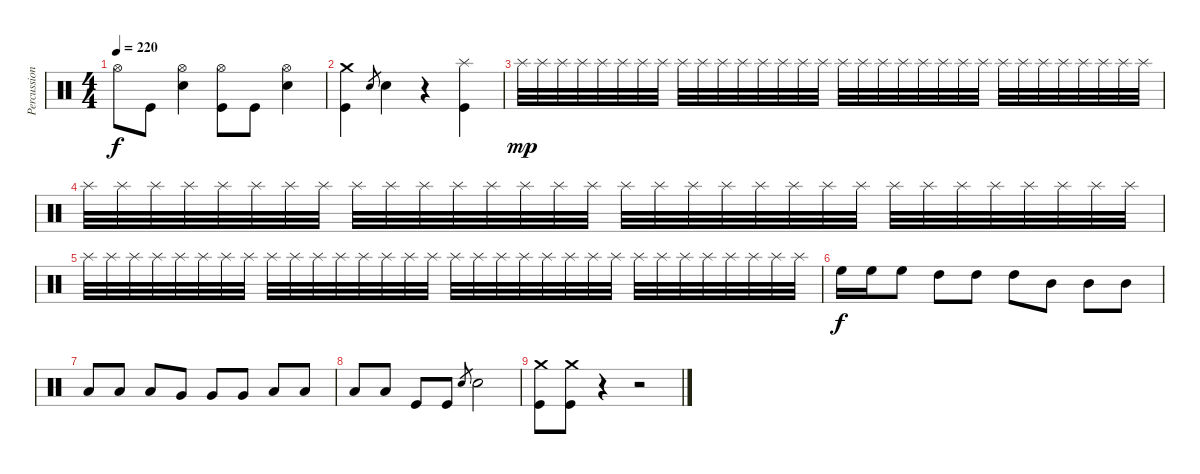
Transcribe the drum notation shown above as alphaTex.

\track ("Percussions" "Percussion") {instrument percussion}
\staff {score}
\articulation defaults
\ts (4 4)
\tempo 220
\clef neutral
\ks c "Hi-Hat (open)".8{dy f} "Kick (hit)".8
("Electric Snare (hit)" "Hi-Hat (open)").4 ("Kick (hit)" "Hi-Hat (open)").8 "Kick (hit)".8 ("Electric Snare (hit)" "Hi-Hat (open)").4 |
("Kick (hit)" "Crash medium (hit)").4 "Electric Snare (hit)".8{gr} "Electric Snare (hit)".4 r.4 ("Kick (hit)" "Splash (hit)").4 |
"Splash (hit)".32{dy mp} "Splash (hit)".32 "Splash (hit)".32 "Splash (hit)".32 "Splash (hit)".32 "Splash (hit)".32 "Splash (hit)".32 "Splash (hit)".32 "Splash (hit)".32 "Splash (hit)".32 "Splash (hit)".32 "Splash (hit)".32 "Splash (hit)".32 "Splash (hit)".32 "Splash (hit)".32 "Splash (hit)".32 "Splash (hit)".32 "Splash (hit)".32 "Splash (hit)".32 "Splash (hit)".32 "Splash (hit)".32 "Splash (hit)".32 "Splash (hit)".32 "Splash (hit)".32 "Splash (hit)".32 "Splash (hit)".32 "Splash (hit)".32 "Splash (hit)".32 "Splash (hit)".32 "Splash (hit)".32 "Splash (hit)".32 "Splash (hit)".32 |
"Splash (hit)".32 "Splash (hit)".32 "Splash (hit)".32 "Splash (hit)".32 "Splash (hit)".32 "Splash (hit)".32 "Splash (hit)".32 "Splash (hit)".32 "Splash (hit)".32 "Splash (hit)".32 "Splash (hit)".32 "Splash (hit)".32 "Splash (hit)".32 "Splash (hit)".32 "Splash (hit)".32 "Splash (hit)".32 "Splash (hit)".32 "Splash (hit)".32 "Splash (hit)".32 "Splash (hit)".32 "Splash (hit)".32 "Splash (hit)".32 "Splash (hit)".32 "Splash (hit)".32 "Splash (hit)".32 "Splash (hit)".32 "Splash (hit)".32 "Splash (hit)".32 "Splash (hit)".32 "Splash (hit)".32 "Splash (hit)".32 "Splash (hit)".32 |
"Splash (hit)".32 "Splash (hit)".32 "Splash (hit)".32 "Splash (hit)".32 "Splash (hit)".32 "Splash (hit)".32 "Splash (hit)".32 "Splash (hit)".32 "Splash (hit)".32 "Splash (hit)".32 "Splash (hit)".32 "Splash (hit)".32 "Splash (hit)".32 "Splash (hit)".32 "Splash (hit)".32 "Splash (hit)".32 "Splash (hit)".32 "Splash (hit)".32 "Splash (hit)".32 "Splash (hit)".32 "Splash (hit)".32 "Splash (hit)".32 "Splash (hit)".32 "Splash (hit)".32 "Splash (hit)".32 "Splash (hit)".32 "Splash (hit)".32 "Splash (hit)".32 "Splash (hit)".32 "Splash (hit)".32 "Splash (hit)".32 "Splash (hit)".32 |
"High Floor Tom (hit)".16{dy f} "High Floor Tom (hit)".16 "High Floor Tom (hit)".8 "High Tom (hit)".8 "High Tom (hit)".8 "High Tom (hit)".8 "Mid Tom (hit)".8 "Mid Tom (hit)".8 "Mid Tom (hit)".8 |
"Low Tom (hit)".8 "Low Tom (hit)".8 "Low Tom (hit)".8 "Very Low Tom (hit)".8 "Very Low Tom (hit)".8 "Very Low Tom (hit)".8 "Low Floor Tom (hit)".8 "Low Floor Tom (hit)".8 |
"Low Floor Tom (hit)".8 "Low Floor Tom (hit)".8 "Kick (hit)".8 "Kick (hit)".8 "Electric Snare (hit)".8{gr} "Electric Snare (hit)".2 |
("Kick (hit)" "Crash medium (hit)").8 ("Kick (hit)" "Crash medium (hit)").8 r.4 r.2
